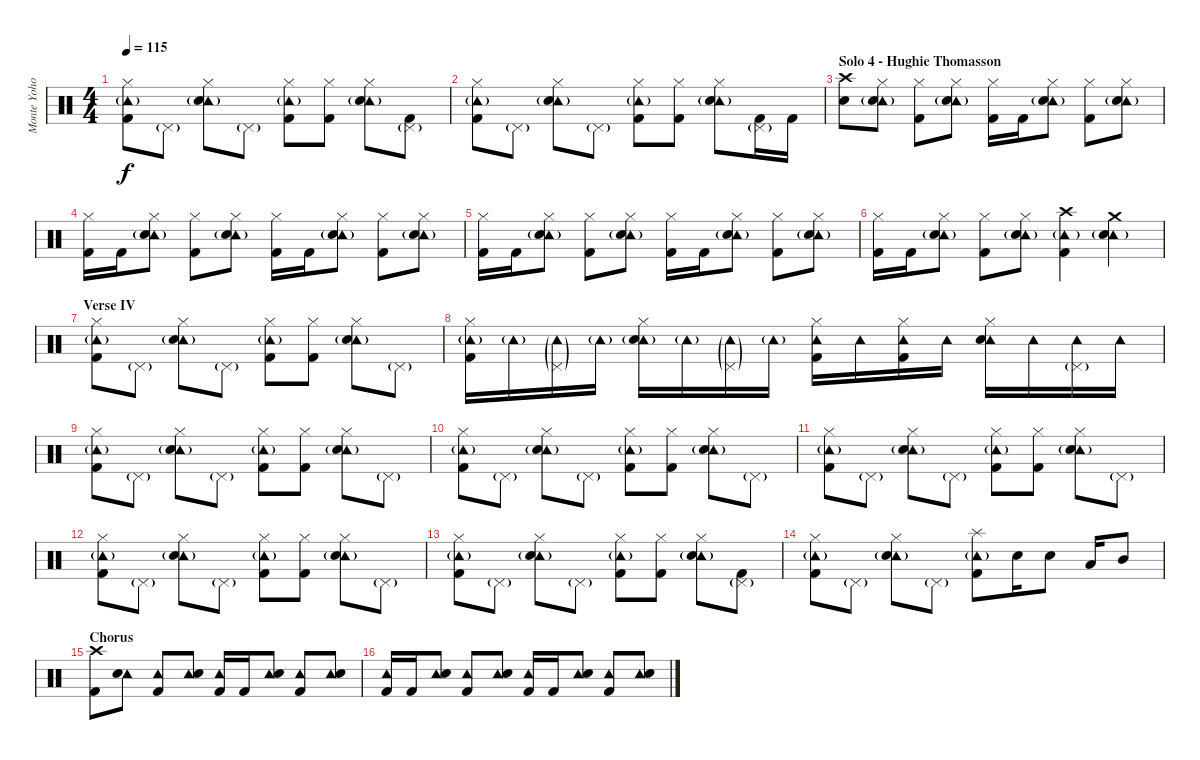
\track ("Monte Yoho - Drums" "Monte Yoho") {instrument percussion}
\staff {score}
\articulation defaults
\ts (4 4)
\tempo 115
\clef neutral
\ks c
("Hi-Hat (closed)" "Tambourine (hit)"{g} "Kick (hit) 2").8{dy f} "Pedal Hi-Hat (hit)"{g}.8 ("Hi-Hat (closed)" "Tambourine (hit)"{g} "Snare (hit) 2").8 "Pedal Hi-Hat (hit)"{g}.8 ("Hi-Hat (closed)" "Tambourine (hit)"{g} "Kick (hit) 2").8 ("Hi-Hat (closed)" "Kick (hit) 2").8 ("Hi-Hat (closed)" "Tambourine (hit)"{g} "Snare (hit) 2").8 ("Pedal Hi-Hat (hit)"{g} "Kick (hit) 2").8 |
("Hi-Hat (closed)" "Tambourine (hit)"{g} "Kick (hit) 2").8 "Pedal Hi-Hat (hit)"{g}.8 ("Hi-Hat (closed)" "Tambourine (hit)"{g} "Snare (hit) 2").8 "Pedal Hi-Hat (hit)"{g}.8 ("Hi-Hat (closed)" "Tambourine (hit)"{g} "Kick (hit) 2").8 ("Hi-Hat (closed)" "Kick (hit) 2").8 ("Hi-Hat (closed)" "Tambourine (hit)"{g} "Snare (hit) 2").8 ("Pedal Hi-Hat (hit)"{g} "Kick (hit) 2").16 "Kick (hit) 2".16 |
\section ("" "Solo 4 - Hughie Thomasson")
("Crash high (hit)" "Snare (hit) 2").8 ("Hi-Hat (closed)" "Tambourine (hit)"{g} "Snare (hit) 2").8 ("Hi-Hat (closed)" "Kick (hit) 2").8 ("Hi-Hat (closed)" "Tambourine (hit)"{g} "Snare (hit) 2").8 ("Hi-Hat (closed)" "Kick (hit) 2").16 "Kick (hit) 2".16 ("Hi-Hat (closed)" "Tambourine (hit)"{g} "Snare (hit) 2").8 ("Hi-Hat (closed)" "Kick (hit) 2").8 ("Hi-Hat (closed)" "Tambourine (hit)"{g} "Snare (hit) 2").8 |
("Hi-Hat (closed)" "Kick (hit) 2").16 "Kick (hit) 2".16 ("Hi-Hat (closed)" "Tambourine (hit)"{g} "Snare (hit) 2").8 ("Hi-Hat (closed)" "Kick (hit) 2").8 ("Hi-Hat (closed)" "Tambourine (hit)"{g} "Snare (hit) 2").8 ("Hi-Hat (closed)" "Kick (hit) 2").16 "Kick (hit) 2".16 ("Hi-Hat (closed)" "Tambourine (hit)"{g} "Snare (hit) 2").8 ("Hi-Hat (closed)" "Kick (hit) 2").8 ("Hi-Hat (closed)" "Tambourine (hit)"{g} "Snare (hit) 2").8 |
("Hi-Hat (closed)" "Kick (hit) 2").16 "Kick (hit) 2".16 ("Hi-Hat (closed)" "Tambourine (hit)"{g} "Snare (hit) 2").8 ("Hi-Hat (closed)" "Kick (hit) 2").8 ("Hi-Hat (closed)" "Tambourine (hit)"{g} "Snare (hit) 2").8 ("Hi-Hat (closed)" "Kick (hit) 2").16 "Kick (hit) 2".16 ("Hi-Hat (closed)" "Tambourine (hit)"{g} "Snare (hit) 2").8 ("Hi-Hat (closed)" "Kick (hit) 2").8 ("Hi-Hat (closed)" "Tambourine (hit)"{g} "Snare (hit) 2").8 |
("Hi-Hat (closed)" "Kick (hit) 2").16 "Kick (hit) 2".16 ("Hi-Hat (closed)" "Tambourine (hit)"{g} "Snare (hit) 2").8 ("Hi-Hat (closed)" "Kick (hit) 2").8 ("Hi-Hat (closed)" "Tambourine (hit)"{g} "Snare (hit) 2").8 ("Crash high (hit)" "Tambourine (hit)"{g} "Kick (hit) 2").4 ("Crash medium (hit)" "Tambourine (hit)"{g} "Snare (hit) 2").4 |
\section ("" "Verse IV")
("Hi-Hat (closed)" "Tambourine (hit)"{g} "Kick (hit) 2").8 "Pedal Hi-Hat (hit)"{g}.8 ("Hi-Hat (closed)" "Tambourine (hit)"{g} "Snare (hit) 2").8 "Pedal Hi-Hat (hit)"{g}.8 ("Hi-Hat (closed)" "Tambourine (hit)"{g} "Kick (hit) 2").8 ("Hi-Hat (closed)" "Kick (hit) 2").8 ("Hi-Hat (closed)" "Tambourine (hit)"{g} "Snare (hit) 2").8 "Pedal Hi-Hat (hit)"{g}.8 |
("Hi-Hat (closed)" "Tambourine (hit)"{g} "Kick (hit) 2").16 "Tambourine (hit)"{g}.16 ("Pedal Hi-Hat (hit)"{g} "Tambourine (hit)"{g}).16 "Tambourine (hit)"{g}.16 ("Hi-Hat (closed)" "Tambourine (hit)"{g} "Snare (hit) 2").16 "Tambourine (hit)"{g}.16 ("Pedal Hi-Hat (hit)"{g} "Tambourine (hit)"{g}).16 "Tambourine (hit)"{g}.16 ("Hi-Hat (closed)" "Tambourine (hit)" "Kick (hit) 2").16 "Tambourine (hit)".16 ("Hi-Hat (closed)" "Tambourine (hit)" "Kick (hit) 2").16 "Tambourine (hit)".16 ("Hi-Hat (closed)" "Tambourine (hit)" "Snare (hit) 2").16 "Tambourine (hit)".16 ("Pedal Hi-Hat (hit)"{g} "Tambourine (hit)").16 "Tambourine (hit)".16 |
("Hi-Hat (closed)" "Tambourine (hit)"{g} "Kick (hit) 2").8 "Pedal Hi-Hat (hit)"{g}.8 ("Hi-Hat (closed)" "Tambourine (hit)"{g} "Snare (hit) 2").8 "Pedal Hi-Hat (hit)"{g}.8 ("Hi-Hat (closed)" "Tambourine (hit)"{g} "Kick (hit) 2").8 ("Hi-Hat (closed)" "Kick (hit) 2").8 ("Hi-Hat (closed)" "Tambourine (hit)"{g} "Snare (hit) 2").8 "Pedal Hi-Hat (hit)"{g}.8 |
("Hi-Hat (closed)" "Tambourine (hit)"{g} "Kick (hit) 2").8 "Pedal Hi-Hat (hit)"{g}.8 ("Hi-Hat (closed)" "Tambourine (hit)"{g} "Snare (hit) 2").8 "Pedal Hi-Hat (hit)"{g}.8 ("Hi-Hat (closed)" "Tambourine (hit)"{g} "Kick (hit) 2").8 ("Hi-Hat (closed)" "Kick (hit) 2").8 ("Hi-Hat (closed)" "Tambourine (hit)"{g} "Snare (hit) 2").8 "Pedal Hi-Hat (hit)"{g}.8 |
("Hi-Hat (closed)" "Tambourine (hit)"{g} "Kick (hit) 2").8 "Pedal Hi-Hat (hit)"{g}.8 ("Hi-Hat (closed)" "Tambourine (hit)"{g} "Snare (hit) 2").8 "Pedal Hi-Hat (hit)"{g}.8 ("Hi-Hat (closed)" "Tambourine (hit)"{g} "Kick (hit) 2").8 ("Hi-Hat (closed)" "Kick (hit) 2").8 ("Hi-Hat (closed)" "Tambourine (hit)"{g} "Snare (hit) 2").8 "Pedal Hi-Hat (hit)"{g}.8 |
("Hi-Hat (closed)" "Tambourine (hit)"{g} "Kick (hit) 2").8 "Pedal Hi-Hat (hit)"{g}.8 ("Hi-Hat (closed)" "Tambourine (hit)"{g} "Snare (hit) 2").8 "Pedal Hi-Hat (hit)"{g}.8 ("Hi-Hat (closed)" "Tambourine (hit)"{g} "Kick (hit) 2").8 ("Hi-Hat (closed)" "Kick (hit) 2").8 ("Hi-Hat (closed)" "Tambourine (hit)"{g} "Snare (hit) 2").8 "Pedal Hi-Hat (hit)"{g}.8 |
("Hi-Hat (closed)" "Tambourine (hit)"{g} "Kick (hit) 2").8 "Pedal Hi-Hat (hit)"{g}.8 ("Hi-Hat (closed)" "Tambourine (hit)"{g} "Snare (hit) 2").8 "Pedal Hi-Hat (hit)"{g}.8 ("Hi-Hat (closed)" "Tambourine (hit)"{g} "Kick (hit) 2").8 ("Hi-Hat (closed)" "Kick (hit) 2").8 ("Hi-Hat (closed)" "Tambourine (hit)"{g} "Snare (hit) 2").8 ("Pedal Hi-Hat (hit)"{g} "Kick (hit) 2").8 |
("Hi-Hat (closed)" "Tambourine (hit)"{g} "Kick (hit) 2").8 "Pedal Hi-Hat (hit)"{g}.8 ("Hi-Hat (closed)" "Tambourine (hit)"{g} "Snare (hit) 2").8 "Pedal Hi-Hat (hit)"{g}.8 ("Splash (hit)" "Tambourine (hit)"{g} "Kick (hit) 2").8 "Snare (hit) 2".16 "Snare (hit) 2".8 "Low Tom (hit)".16 "Mid Tom (hit)".8 |
\section ("" "Chorus")
("Crash high (hit)" "Kick (hit) 2").8 ("Tambourine (hit)" "Snare (hit) 2").8 ("Tambourine (hit)" "Kick (hit) 2").8 ("Tambourine (hit)" "Snare (hit) 2").8 ("Tambourine (hit)" "Kick (hit) 2").16 "Kick (hit) 2".16 ("Tambourine (hit)" "Snare (hit) 2").8 ("Tambourine (hit)" "Kick (hit) 2").8 ("Tambourine (hit)" "Snare (hit) 2").8 |
("Tambourine (hit)" "Kick (hit) 2").16 "Kick (hit) 2".16 ("Tambourine (hit)" "Snare (hit) 2").8 ("Tambourine (hit)" "Kick (hit) 2").8 ("Tambourine (hit)" "Snare (hit) 2").8 ("Tambourine (hit)" "Kick (hit) 2").16 "Kick (hit) 2".16 ("Tambourine (hit)" "Snare (hit) 2").8 ("Tambourine (hit)" "Kick (hit) 2").8 ("Tambourine (hit)" "Snare (hit) 2").8
